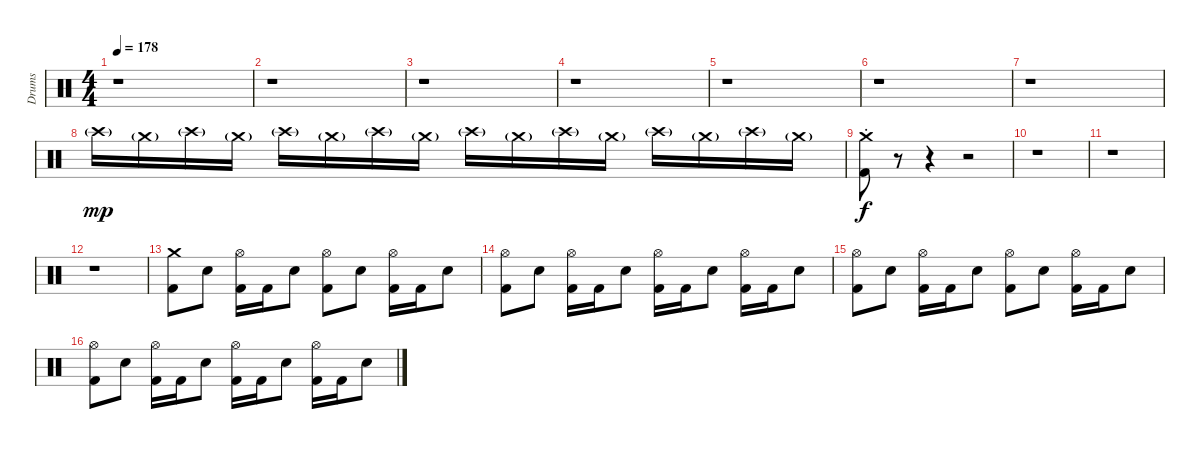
\track ("Drums" "Drums") {instrument percussion}
\staff {score}
\articulation defaults
\ts (4 4)
\tempo 178
\clef neutral
\ks c
r.1{dy mp} |
r.1 |
r.1 |
r.1 |
r.1 |
r.1 |
r.1{volume 0} |
"Crash high (hit)"{g}.16{volume 13} "Crash medium (hit)"{g}.16 "Crash high (hit)"{g}.16 "Crash medium (hit)"{g}.16 "Crash high (hit)"{g}.16 "Crash medium (hit)"{g}.16 "Crash high (hit)"{g}.16 "Crash medium (hit)"{g}.16 "Crash high (hit)"{g}.16 "Crash medium (hit)"{g}.16 "Crash high (hit)"{g}.16 "Crash medium (hit)"{g}.16 "Crash high (hit)"{g}.16 "Crash medium (hit)"{g}.16 "Crash high (hit)"{g}.16 "Crash medium (hit)"{g}.16 |
("Crash medium (hit)"{st} "Kick (hit) 2"{st}).8{dy f} r.8 r.4 r.2 |
r.1 |
r.1 |
r.1 |
("Crash medium (hit)" "Kick (hit) 2").8 "Electric Snare (hit)".8 ("Hi-Hat (open)" "Kick (hit) 2").16 "Kick (hit) 2".16 "Electric Snare (hit)".8 ("Hi-Hat (open)" "Kick (hit) 2").8 "Electric Snare (hit)".8 ("Hi-Hat (open)" "Kick (hit) 2").16 "Kick (hit) 2".16 "Electric Snare (hit)".8 |
("Hi-Hat (open)" "Kick (hit) 2").8 "Electric Snare (hit)".8 ("Hi-Hat (open)" "Kick (hit) 2").16 "Kick (hit) 2".16 "Electric Snare (hit)".8 ("Hi-Hat (open)" "Kick (hit) 2").16 "Kick (hit) 2".16 "Electric Snare (hit)".8 ("Hi-Hat (open)" "Kick (hit) 2").16 "Kick (hit) 2".16 "Electric Snare (hit)".8 |
("Hi-Hat (open)" "Kick (hit) 2").8 "Electric Snare (hit)".8 ("Hi-Hat (open)" "Kick (hit) 2").16 "Kick (hit) 2".16 "Electric Snare (hit)".8 ("Hi-Hat (open)" "Kick (hit) 2").8 "Electric Snare (hit)".8 ("Hi-Hat (open)" "Kick (hit) 2").16 "Kick (hit) 2".16 "Electric Snare (hit)".8 |
("Hi-Hat (open)" "Kick (hit) 2").8 "Electric Snare (hit)".8 ("Hi-Hat (open)" "Kick (hit) 2").16 "Kick (hit) 2".16 "Electric Snare (hit)".8 ("Hi-Hat (open)" "Kick (hit) 2").16 "Kick (hit) 2".16 "Electric Snare (hit)".8 ("Hi-Hat (open)" "Kick (hit) 2").16 "Kick (hit) 2".16 "Electric Snare (hit)".8
